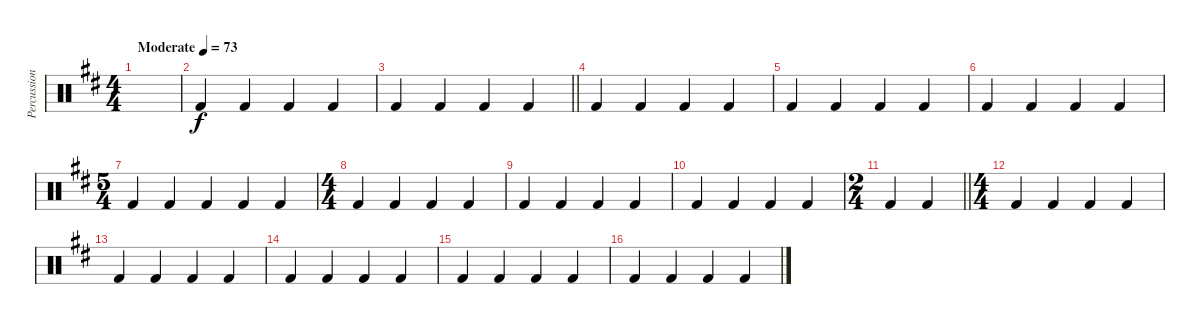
\track ("Percussion" "Percussion") {instrument percussion}
\staff {score}
\articulation defaults
\ts (4 4)
\tempo (73 "Moderate")
\clef neutral
\ks d
|
"Kick (hit) 2".4 "Kick (hit) 2".4 "Kick (hit) 2".4 "Kick (hit) 2".4 |
\barLineRight lightlight "Kick (hit) 2".4 "Kick (hit) 2".4 "Kick (hit) 2".4 "Kick (hit) 2".4
|
"Kick (hit) 2".4 "Kick (hit) 2".4 "Kick (hit) 2".4 "Kick (hit) 2".4 |
"Kick (hit) 2".4 "Kick (hit) 2".4 "Kick (hit) 2".4 "Kick (hit) 2".4 |
"Kick (hit) 2".4 "Kick (hit) 2".4 "Kick (hit) 2".4 "Kick (hit) 2".4 |
\ts (5 4)
"Kick (hit) 2".4 "Kick (hit) 2".4 "Kick (hit) 2".4 "Kick (hit) 2".4 "Kick (hit) 2".4 |
\ts (4 4)
"Kick (hit) 2".4 "Kick (hit) 2".4 "Kick (hit) 2".4 "Kick (hit) 2".4 |
"Kick (hit) 2".4 "Kick (hit) 2".4 "Kick (hit) 2".4 "Kick (hit) 2".4 |
"Kick (hit) 2".4 "Kick (hit) 2".4 "Kick (hit) 2".4 "Kick (hit) 2".4 |
\ts (2 4)
\barLineRight lightlight "Kick (hit) 2".4 "Kick (hit) 2".4
|
\ts (4 4)
"Kick (hit) 2".4 "Kick (hit) 2".4 "Kick (hit) 2".4 "Kick (hit) 2".4 |
"Kick (hit) 2".4 "Kick (hit) 2".4 "Kick (hit) 2".4 "Kick (hit) 2".4 |
"Kick (hit) 2".4 "Kick (hit) 2".4 "Kick (hit) 2".4 "Kick (hit) 2".4 |
"Kick (hit) 2".4 "Kick (hit) 2".4 "Kick (hit) 2".4 "Kick (hit) 2".4 |
"Kick (hit) 2".4 "Kick (hit) 2".4 "Kick (hit) 2".4 "Kick (hit) 2".4
